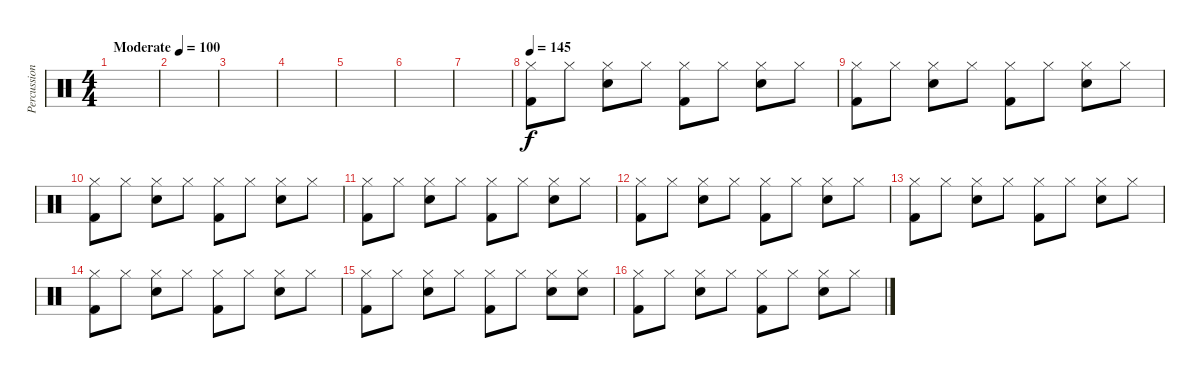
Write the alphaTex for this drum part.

\track ("Percussion (Other)" "Percussion") {instrument percussion}
\staff {score}
\articulation defaults
\ts (4 4)
\tempo (100 "Moderate")
\clef neutral
\ks c
|
|
|
|
|
|
|
\tempo 145
("Hi-Hat (closed)" "Kick (hit) 2").8 "Hi-Hat (closed)".8 ("Hi-Hat (closed)" "Snare (hit) 2").8 "Hi-Hat (closed)".8 ("Hi-Hat (closed)" "Kick (hit) 2").8 "Hi-Hat (closed)".8 ("Hi-Hat (closed)" "Snare (hit) 2").8 "Hi-Hat (closed)".8 |
("Hi-Hat (closed)" "Kick (hit) 2").8 "Hi-Hat (closed)".8 ("Hi-Hat (closed)" "Snare (hit) 2").8 "Hi-Hat (closed)".8 ("Hi-Hat (closed)" "Kick (hit) 2").8 "Hi-Hat (closed)".8 ("Hi-Hat (closed)" "Snare (hit) 2").8 "Hi-Hat (closed)".8 |
("Hi-Hat (closed)" "Kick (hit) 2").8 "Hi-Hat (closed)".8 ("Hi-Hat (closed)" "Snare (hit) 2").8 "Hi-Hat (closed)".8 ("Hi-Hat (closed)" "Kick (hit) 2").8 "Hi-Hat (closed)".8 ("Hi-Hat (closed)" "Snare (hit) 2").8 "Hi-Hat (closed)".8 |
("Hi-Hat (closed)" "Kick (hit) 2").8 "Hi-Hat (closed)".8 ("Hi-Hat (closed)" "Snare (hit) 2").8 "Hi-Hat (closed)".8 ("Hi-Hat (closed)" "Kick (hit) 2").8 "Hi-Hat (closed)".8 ("Hi-Hat (closed)" "Snare (hit) 2").8 "Hi-Hat (closed)".8 |
("Hi-Hat (closed)" "Kick (hit) 2").8 "Hi-Hat (closed)".8 ("Hi-Hat (closed)" "Snare (hit) 2").8 "Hi-Hat (closed)".8 ("Hi-Hat (closed)" "Kick (hit) 2").8 "Hi-Hat (closed)".8 ("Hi-Hat (closed)" "Snare (hit) 2").8 "Hi-Hat (closed)".8 |
("Hi-Hat (closed)" "Kick (hit) 2").8 "Hi-Hat (closed)".8 ("Hi-Hat (closed)" "Snare (hit) 2").8 "Hi-Hat (closed)".8 ("Hi-Hat (closed)" "Kick (hit) 2").8 "Hi-Hat (closed)".8 ("Hi-Hat (closed)" "Snare (hit) 2").8 "Hi-Hat (closed)".8 |
("Hi-Hat (closed)" "Kick (hit) 2").8 "Hi-Hat (closed)".8 ("Hi-Hat (closed)" "Snare (hit) 2").8 "Hi-Hat (closed)".8 ("Hi-Hat (closed)" "Kick (hit) 2").8 "Hi-Hat (closed)".8 ("Hi-Hat (closed)" "Snare (hit) 2").8 "Hi-Hat (closed)".8 |
("Hi-Hat (closed)" "Kick (hit) 2").8 "Hi-Hat (closed)".8 ("Hi-Hat (closed)" "Snare (hit) 2").8 "Hi-Hat (closed)".8 ("Hi-Hat (closed)" "Kick (hit) 2").8 "Hi-Hat (closed)".8 ("Hi-Hat (closed)" "Snare (hit) 2").8 ("Hi-Hat (closed)" "Snare (hit) 2").8 |
("Hi-Hat (closed)" "Kick (hit) 2").8 "Hi-Hat (closed)".8 ("Hi-Hat (closed)" "Snare (hit) 2").8 "Hi-Hat (closed)".8 ("Hi-Hat (closed)" "Kick (hit) 2").8 "Hi-Hat (closed)".8 ("Hi-Hat (closed)" "Snare (hit) 2").8 "Hi-Hat (closed)".8
